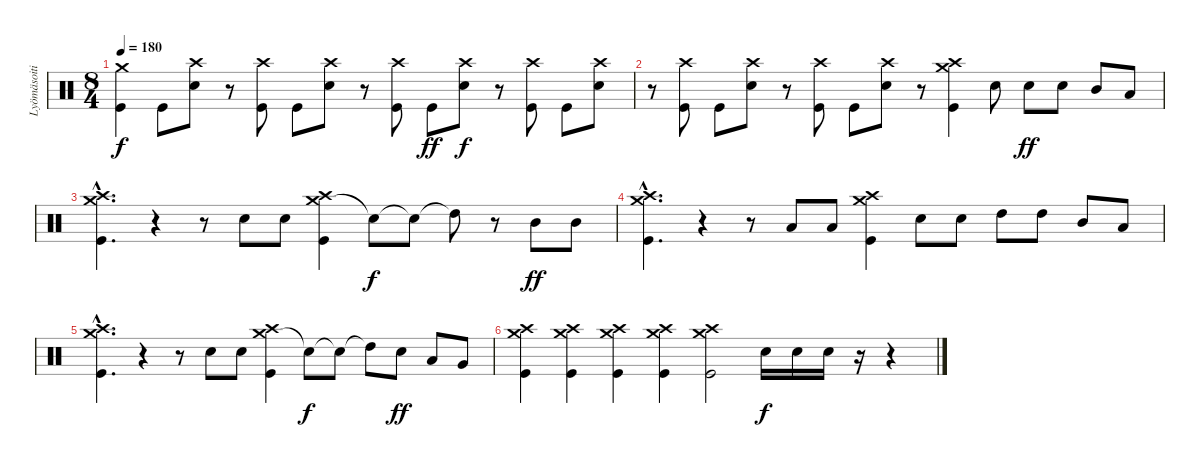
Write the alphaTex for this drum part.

\track ("Lyömäsoitin" "Lyömäsoiti") {instrument percussion}
\staff {score}
\articulation defaults
\ts (8 4)
\tempo 180
\clef neutral
\ks c
("Crash medium (hit)" "Kick (hit)").4{dy f} "Kick (hit)".8 ("Crash high (hit)" "Snare (hit) 2").8 r.8 ("Crash high (hit)" "Kick (hit)").8 "Kick (hit)".8 ("Crash high (hit)" "Snare (hit) 2").8 r.8 ("Crash high (hit)" "Kick (hit)").8 "Kick (hit)".8{dy ff} ("Crash high (hit)" "Snare (hit) 2").8{dy f} r.8 ("Crash high (hit)" "Kick (hit)").8 "Kick (hit)".8 ("Crash high (hit)" "Snare (hit) 2").8 |
r.8 ("Crash high (hit)" "Kick (hit)").8 "Kick (hit)".8 ("Crash high (hit)" "Snare (hit) 2").8 r.8 ("Crash high (hit)" "Kick (hit)").8 "Kick (hit)".8 ("Crash high (hit)" "Snare (hit) 2").8 r.8 ("Crash medium (hit)" "Crash high (hit)" "Kick (hit)").4 "Snare (hit) 2".8 "Snare (hit) 2".8{dy ff} "Snare (hit) 2".8 "Mid Tom (hit)".8 "Low Tom (hit)".8 |
("Crash medium (hit)"{hac} "Crash high (hit)"{hac} "Kick (hit)"{hac}).4{d} r.4 r.8 "Snare (hit) 2".8 "Snare (hit) 2".8 ("Crash medium (hit)" "Crash high (hit)" "Kick (hit)").4 "Snare (hit) 2"{t}.8{dy f} "Snare (hit) 2"{t}.8 "High Tom (hit)"{t}.8 r.8 "Mid Tom (hit)".8{dy ff} "Mid Tom (hit)".8 |
("Crash medium (hit)"{hac} "Crash high (hit)"{hac} "Kick (hit)"{hac}).4{d} r.4 r.8 "Low Tom (hit)".8 "Low Tom (hit)".8 ("Crash medium (hit)" "Crash high (hit)" "Kick (hit)").4 "Snare (hit) 2".8 "Snare (hit) 2".8 "High Tom (hit)".8 "High Tom (hit)".8 "Mid Tom (hit)".8 "Low Tom (hit)".8 |
("Crash medium (hit)"{hac} "Crash high (hit)"{hac} "Kick (hit)"{hac}).4{d} r.4 r.8 "Snare (hit) 2".8 "Snare (hit) 2".8 ("Crash medium (hit)" "Crash high (hit)" "Kick (hit)").4 "Snare (hit) 2"{t}.8{dy f} "Snare (hit) 2"{t}.8 "High Tom (hit)"{t}.8 "Snare (hit) 2".8{dy ff} "Low Tom (hit)".8 "Very Low Tom (hit)".8 |
("Crash medium (hit)" "Crash high (hit)" "Kick (hit)").4 ("Crash medium (hit)" "Crash high (hit)" "Kick (hit)").4 ("Crash medium (hit)" "Crash high (hit)" "Kick (hit)").4 ("Crash medium (hit)" "Crash high (hit)" "Kick (hit)").4 ("Crash medium (hit)" "Crash high (hit)" "Kick (hit)").2 "Snare (hit) 2".16{dy f} "Snare (hit) 2".16 "Snare (hit) 2".16 r.16 r.4
